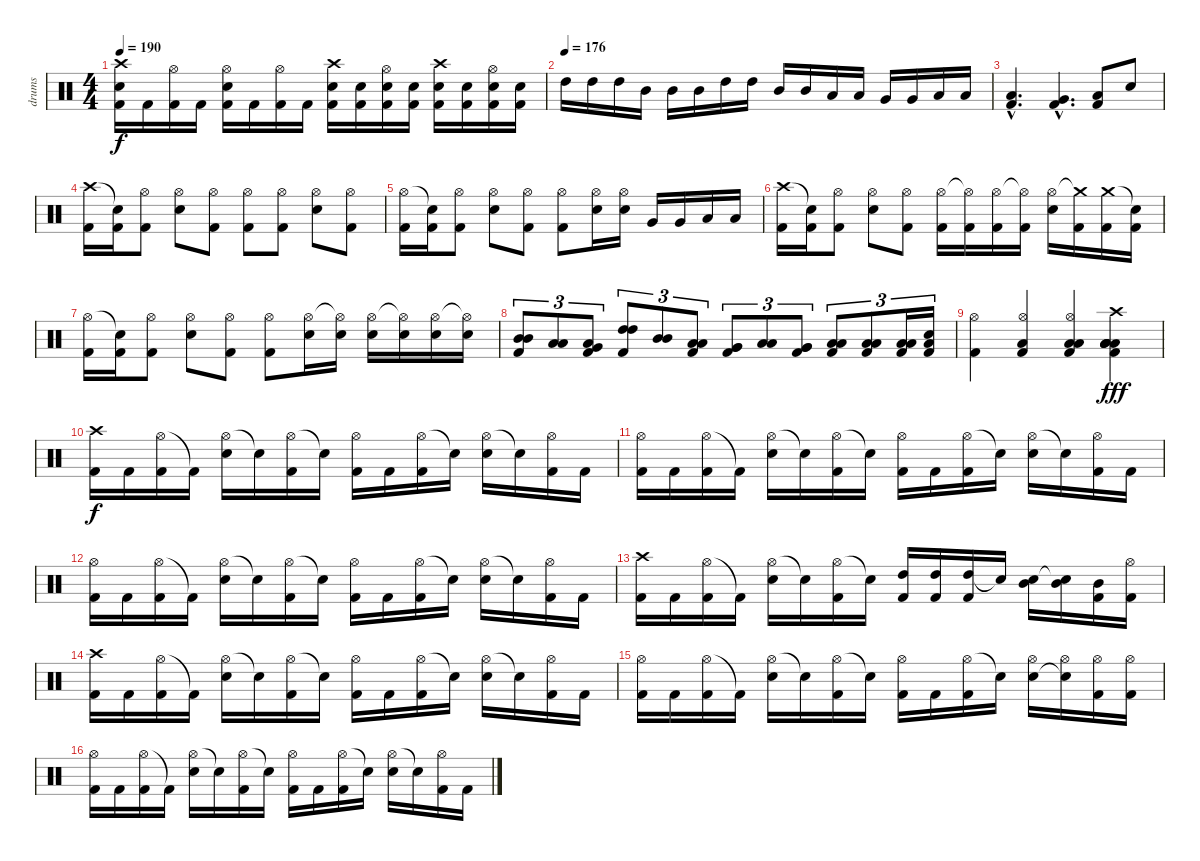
\track ("drums" "drums") {instrument percussion}
\staff {score}
\articulation defaults
\ts (4 4)
\tempo 190
\clef neutral
\ks c
("Crash high (hit)" "Snare (hit) 2" "Kick (hit) 2").16{dy f} "Kick (hit) 2".16 ("Hi-Hat (open)" "Kick (hit) 2").16 "Kick (hit) 2".16 ("Hi-Hat (open)" "Snare (hit) 2" "Kick (hit) 2").16 "Kick (hit) 2".16 ("Hi-Hat (open)" "Kick (hit) 2").16 "Kick (hit) 2".16 ("Crash high (hit)" "Snare (hit) 2" "Kick (hit) 2").16 ("Snare (hit) 2" "Kick (hit) 2").16 ("Hi-Hat (open)" "Snare (hit) 2" "Kick (hit) 2").16 ("Snare (hit) 2" "Kick (hit) 2").16 ("Crash high (hit)" "Snare (hit) 2" "Kick (hit) 2").16 ("Snare (hit) 2" "Kick (hit) 2").16 ("Hi-Hat (open)" "Snare (hit) 2" "Kick (hit) 2").16 ("Snare (hit) 2" "Kick (hit) 2").16 |
\tempo (176)
"High Tom (hit)".16 "High Tom (hit)".16 "High Tom (hit)".16 "Mid Tom (hit)".16 "Mid Tom (hit)".16 "Mid Tom (hit)".16 "High Tom (hit)".16 "High Tom (hit)".16 "Mid Tom (hit)".16 "Mid Tom (hit)".16 "Low Tom (hit)".16 "Low Tom (hit)".16 "Very Low Tom (hit)".16 "Very Low Tom (hit)".16 "Low Floor Tom (hit)".16 "Low Floor Tom (hit)".16 |
("Kick (hit) 2"{hac} "Low Tom (hit)"{hac}).4{d} ("Kick (hit) 2"{hac} "Very Low Tom (hit)"{hac}).4{d} ("Kick (hit) 2" "Low Floor Tom (hit)").8 "Electric Snare (hit)".8 |
("Crash high (hit)" "Kick (hit) 2").16 ("Snare (hit)"{t} "Kick (hit) 2").16 ("Hi-Hat (open)" "Kick (hit) 2").8 ("Hi-Hat (open)" "Electric Snare (hit)").8 ("Hi-Hat (open)" "Kick (hit) 2").8 ("Hi-Hat (open)" "Kick (hit) 2").8 ("Hi-Hat (open)" "Kick (hit) 2").8 ("Hi-Hat (open)" "Electric Snare (hit)").8 ("Hi-Hat (open)" "Kick (hit) 2").8 |
("Hi-Hat (open)" "Kick (hit) 2").16 ("Snare (hit)"{t} "Kick (hit) 2").16 ("Hi-Hat (open)" "Kick (hit) 2").8 ("Hi-Hat (open)" "Electric Snare (hit)").8 ("Hi-Hat (open)" "Kick (hit) 2").8 ("Hi-Hat (open)" "Kick (hit) 2").8 ("Hi-Hat (open)" "Electric Snare (hit)").16 ("Hi-Hat (open)" "Electric Snare (hit)").16 "Very Low Tom (hit)".16 "Very Low Tom (hit)".16 "Low Floor Tom (hit)".16 "Low Floor Tom (hit)".16 |
("Crash high (hit)" "Kick (hit) 2").16 ("Snare (hit)"{t} "Kick (hit) 2").16 ("Hi-Hat (open)" "Kick (hit) 2").8 ("Hi-Hat (open)" "Electric Snare (hit)").8 ("Hi-Hat (open)" "Kick (hit) 2").8 ("Hi-Hat (open)" "Kick (hit) 2").16 ("Hi-Hat (open)"{t} "Kick (hit) 2").16 ("Hi-Hat (open)" "Kick (hit) 2").16 ("Hi-Hat (open)"{t} "Kick (hit) 2").16 ("Hi-Hat (open)" "Electric Snare (hit)").16 ("Crash medium (hit)"{t} "Kick (hit) 2").16 ("Crash medium (hit)" "Kick (hit) 2").16 ("Snare (hit)"{t} "Kick (hit) 2").16 |
("Hi-Hat (open)" "Kick (hit) 2").16 ("Snare (hit)"{t} "Kick (hit) 2").16 ("Hi-Hat (open)" "Kick (hit) 2").8 ("Hi-Hat (open)" "Electric Snare (hit)").8 ("Hi-Hat (open)" "Kick (hit) 2").8 ("Hi-Hat (open)" "Kick (hit) 2").8 ("Hi-Hat (open)" "Electric Snare (hit)").16 ("Hi-Hat (open)"{t} "Electric Snare (hit)").16 ("Hi-Hat (open)" "Electric Snare (hit)").16 ("Hi-Hat (open)"{t} "Electric Snare (hit)").16 ("Hi-Hat (open)" "Electric Snare (hit)").16 ("Hi-Hat (open)"{t} "Electric Snare (hit)").16 |
("Mid Tom (hit)" "Mid Tom (hit)" "Kick (hit) 2").8{tu (3 2)} ("Low Tom (hit)" "Low Tom (hit)").8{tu (3 2)} ("Low Tom (hit)" "Very Low Tom (hit)" "Kick (hit) 2").8{tu (3 2)} ("High Tom (hit)" "High Tom (hit)" "Kick (hit) 2").8{tu (3 2)} ("Mid Tom (hit)" "Mid Tom (hit)").8{tu (3 2)} ("Low Tom (hit)" "Low Tom (hit)" "Kick (hit) 2").8{tu (3 2)} ("Very Low Tom (hit)" "Very Low Tom (hit)" "Kick (hit) 2").8{tu (3 2)} ("Low Tom (hit)" "Low Tom (hit)").8{tu (3 2)} ("Very Low Tom (hit)" "Very Low Tom (hit)" "Kick (hit) 2").8{tu (3 2)} ("Low Floor Tom (hit)" "Low Floor Tom (hit)" "Kick (hit) 2").8{tu (3 2)} ("Low Floor Tom (hit)" "Low Floor Tom (hit)" "Kick (hit) 2").8{tu (3 2)} ("Low Floor Tom (hit)" "Low Floor Tom (hit)" "Kick (hit) 2").16{tu (3 2)} ("Snare (hit)" "Low Floor Tom (hit)" "Kick (hit) 2").16{tu (3 2)} |
("Hi-Hat (open)" "Kick (hit) 2").4 ("Hi-Hat (open)" "Low Floor Tom (hit)" "Kick (hit) 2").4 ("Hi-Hat (open)" "Low Floor Tom (hit)" "Low Floor Tom (hit)" "Kick (hit) 2").4 ("Low Floor Tom (hit)" "Low Floor Tom (hit)" "Crash high (hit)" "Low Floor Tom (hit)" "Low Floor Tom (hit)" "Kick (hit) 2").4{dy fff} |
("Crash high (hit)" "Kick (hit) 2").16{dy f} "Kick (hit) 2".16 ("Hi-Hat (open)" "Kick (hit) 2").16 "Kick (hit) 2"{t}.16 ("Hi-Hat (open)" "Electric Snare (hit)").16 "Snare (hit)"{t}.16 ("Hi-Hat (open)" "Kick (hit) 2").16 "Snare (hit)"{t}.16 ("Hi-Hat (open)" "Kick (hit) 2").16 "Kick (hit) 2".16 ("Hi-Hat (open)" "Kick (hit) 2").16 "Snare (hit)"{t}.16 ("Hi-Hat (open)" "Electric Snare (hit)").16 "Snare (hit)"{t}.16 ("Hi-Hat (open)" "Kick (hit) 2").16 "Kick (hit) 2".16 |
("Hi-Hat (open)" "Kick (hit) 2").16 "Kick (hit) 2".16 ("Hi-Hat (open)" "Kick (hit) 2").16 "Kick (hit) 2"{t}.16 ("Hi-Hat (open)" "Electric Snare (hit)").16 "Snare (hit)"{t}.16 ("Hi-Hat (open)" "Kick (hit) 2").16 "Snare (hit)"{t}.16 ("Hi-Hat (open)" "Kick (hit) 2").16 "Kick (hit) 2".16 ("Hi-Hat (open)" "Kick (hit) 2").16 "Snare (hit)"{t}.16 ("Hi-Hat (open)" "Electric Snare (hit)").16 "Snare (hit)"{t}.16 ("Hi-Hat (open)" "Kick (hit) 2").16 "Kick (hit) 2".16 |
("Hi-Hat (open)" "Kick (hit) 2").16 "Kick (hit) 2".16 ("Hi-Hat (open)" "Kick (hit) 2").16 "Kick (hit) 2"{t}.16 ("Hi-Hat (open)" "Electric Snare (hit)").16 "Snare (hit)"{t}.16 ("Hi-Hat (open)" "Kick (hit) 2").16 "Snare (hit)"{t}.16 ("Hi-Hat (open)" "Kick (hit) 2").16 "Kick (hit) 2".16 ("Hi-Hat (open)" "Kick (hit) 2").16 "Snare (hit)"{t}.16 ("Hi-Hat (open)" "Electric Snare (hit)").16 "Snare (hit)"{t}.16 ("Hi-Hat (open)" "Kick (hit) 2").16 "Kick (hit) 2".16 |
("Crash high (hit)" "Kick (hit) 2").16 "Kick (hit) 2".16 ("Hi-Hat (open)" "Kick (hit) 2").16 "Kick (hit) 2"{t}.16 ("Hi-Hat (open)" "Electric Snare (hit)").16 "Snare (hit)"{t}.16 ("Hi-Hat (open)" "Kick (hit) 2").16 "Snare (hit)"{t}.16 ("High Tom (hit)" "Kick (hit) 2").16 ("High Tom (hit)" "Kick (hit) 2").16 ("High Tom (hit)" "Kick (hit) 2").16 "Snare (hit)"{t}.16 ("Mid Tom (hit)" "Electric Snare (hit)").16 ("Mid Tom (hit)" "Snare (hit)"{t}).16 ("Mid Tom (hit)" "Kick (hit) 2").16 ("Hi-Hat (open)" "Kick (hit) 2").16 |
("Crash high (hit)" "Kick (hit) 2").16 "Kick (hit) 2".16 ("Hi-Hat (open)" "Kick (hit) 2").16 "Kick (hit) 2"{t}.16 ("Hi-Hat (open)" "Electric Snare (hit)").16 "Snare (hit)"{t}.16 ("Hi-Hat (open)" "Kick (hit) 2").16 "Snare (hit)"{t}.16 ("Hi-Hat (open)" "Kick (hit) 2").16 "Kick (hit) 2".16 ("Hi-Hat (open)" "Kick (hit) 2").16 "Snare (hit)"{t}.16 ("Hi-Hat (open)" "Electric Snare (hit)").16 "Snare (hit)"{t}.16 ("Hi-Hat (open)" "Kick (hit) 2").16 "Kick (hit) 2".16 |
("Hi-Hat (open)" "Kick (hit) 2").16 "Kick (hit) 2".16 ("Hi-Hat (open)" "Kick (hit) 2").16 "Kick (hit) 2"{t}.16 ("Hi-Hat (open)" "Electric Snare (hit)").16 "Snare (hit)"{t}.16 ("Hi-Hat (open)" "Kick (hit) 2").16 "Snare (hit)"{t}.16 ("Hi-Hat (open)" "Kick (hit) 2").16 "Kick (hit) 2".16 ("Hi-Hat (open)" "Kick (hit) 2").16 "Snare (hit)"{t}.16 ("Hi-Hat (open)" "Electric Snare (hit)").16 ("Hi-Hat (open)" "Snare (hit)"{t}).16 ("Hi-Hat (open)" "Kick (hit) 2").16 ("Hi-Hat (open)" "Kick (hit) 2").16 |
("Hi-Hat (open)" "Kick (hit) 2").16 "Kick (hit) 2".16 ("Hi-Hat (open)" "Kick (hit) 2").16 "Kick (hit) 2"{t}.16 ("Hi-Hat (open)" "Electric Snare (hit)").16 "Snare (hit)"{t}.16 ("Hi-Hat (open)" "Kick (hit) 2").16 "Snare (hit)"{t}.16 ("Hi-Hat (open)" "Kick (hit) 2").16 "Kick (hit) 2".16 ("Hi-Hat (open)" "Kick (hit) 2").16 "Snare (hit)"{t}.16 ("Hi-Hat (open)" "Electric Snare (hit)").16 "Snare (hit)"{t}.16 ("Hi-Hat (open)" "Kick (hit) 2").16 "Kick (hit) 2".16
